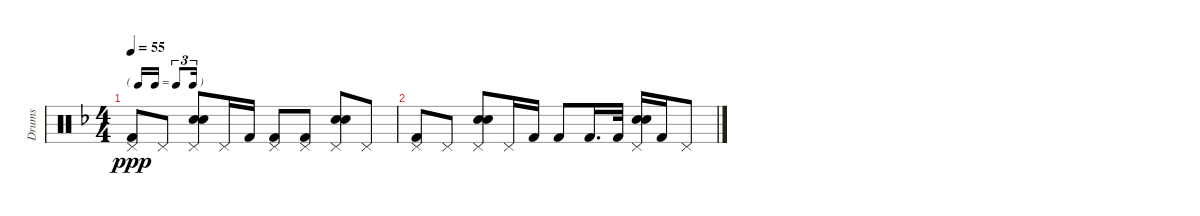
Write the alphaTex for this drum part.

\track ("Drums" "Drums") {instrument percussion}
\staff {score}
\articulation defaults
\ts (4 4)
\tf triplet16th
\tempo 55
\clef neutral
\ks dminor
("Pedal Hi-Hat (hit)" "Kick (hit) 2").8{dy ppp} "Pedal Hi-Hat (hit)".8 ("Pedal Hi-Hat (hit)" "Snare (hit) 2" "Electric Snare (hit)").8 "Pedal Hi-Hat (hit)".16 "Kick (hit) 2".16 ("Pedal Hi-Hat (hit)" "Kick (hit) 2").8 ("Pedal Hi-Hat (hit)" "Kick (hit) 2").8 ("Pedal Hi-Hat (hit)" "Snare (hit) 2" "Electric Snare (hit)").8 "Pedal Hi-Hat (hit)".8 |
("Pedal Hi-Hat (hit)" "Kick (hit) 2").8 "Pedal Hi-Hat (hit)".8 ("Pedal Hi-Hat (hit)" "Snare (hit) 2" "Electric Snare (hit)").8 "Pedal Hi-Hat (hit)".16 "Kick (hit) 2".16 "Kick (hit) 2".8 "Kick (hit) 2".16{d} "Kick (hit) 2".32 ("Pedal Hi-Hat (hit)" "Snare (hit) 2" "Electric Snare (hit)").16 "Kick (hit) 2".16 "Pedal Hi-Hat (hit)".8
